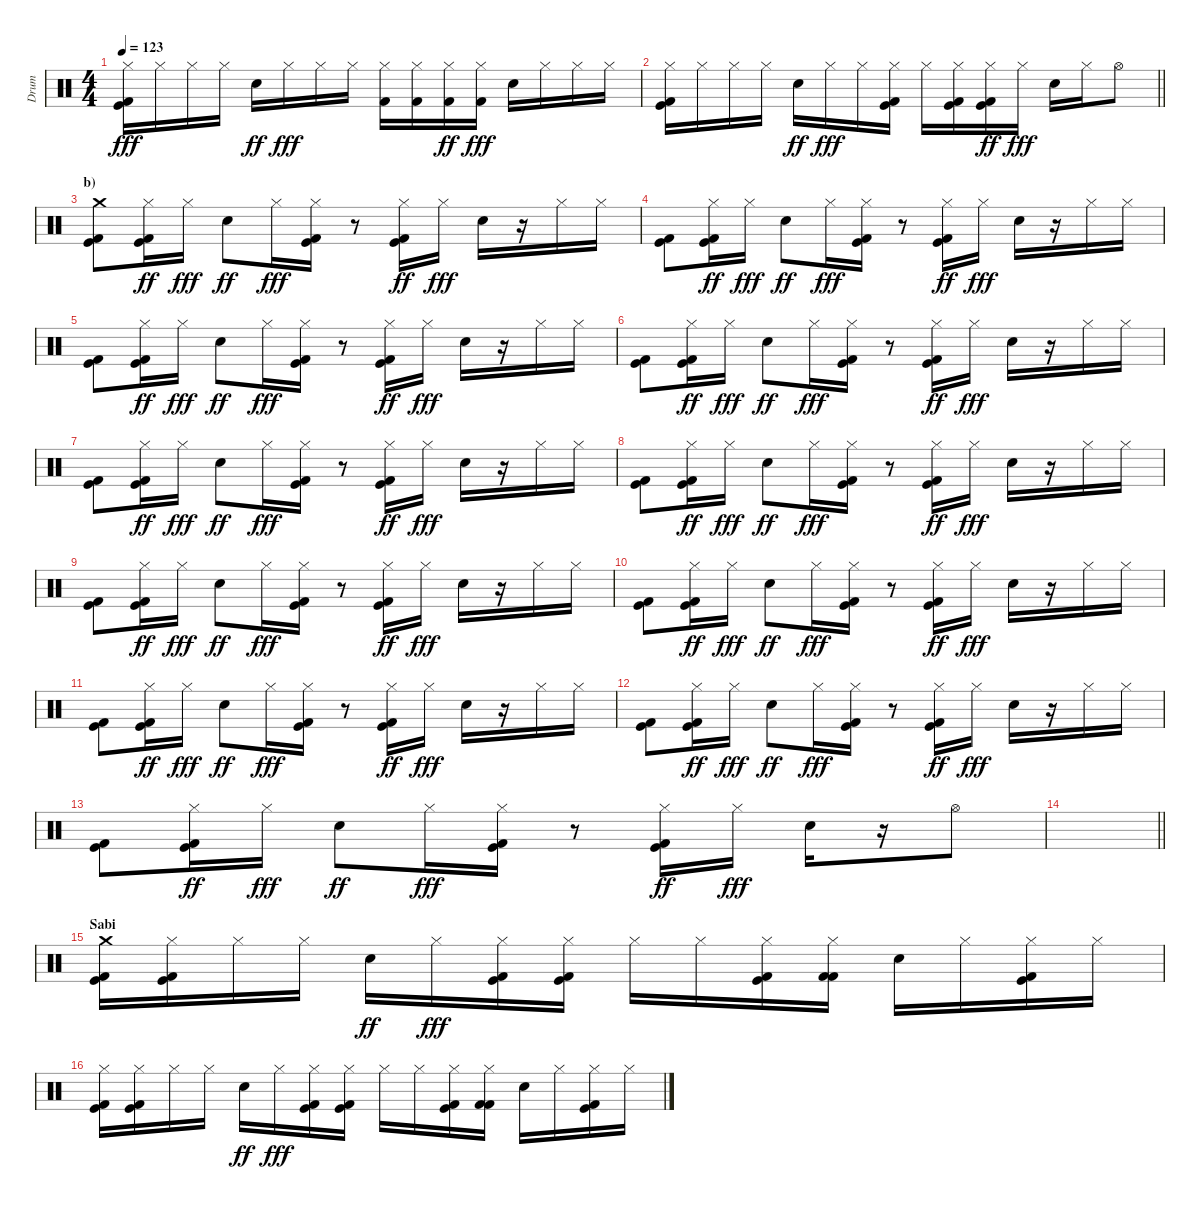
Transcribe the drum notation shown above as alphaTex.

\track ("Drum" "Drum") {instrument percussion}
\staff {score}
\articulation defaults
\ts (4 4)
\tempo 123
\clef neutral
\ks c
("Hi-Hat (closed)" "Kick (hit)" "Kick (hit) 2").16{dy fff} "Hi-Hat (closed)".16 "Hi-Hat (closed)".16 "Hi-Hat (closed)".16 "Electric Snare (hit)".16{dy ff} "Hi-Hat (closed)".16{dy fff} "Hi-Hat (closed)".16 "Hi-Hat (closed)".16 ("Hi-Hat (closed)" "Kick (hit) 2").16 ("Hi-Hat (closed)" "Kick (hit) 2").16 ("Hi-Hat (closed)" "Kick (hit) 2").16{dy ff} ("Hi-Hat (closed)" "Kick (hit) 2").16{dy fff} "Electric Snare (hit)".16 "Hi-Hat (closed)".16 "Hi-Hat (closed)".16 "Hi-Hat (closed)".16 |
\barLineRight lightlight
("Hi-Hat (closed)" "Kick (hit)" "Kick (hit) 2").16 "Hi-Hat (closed)".16 "Hi-Hat (closed)".16 "Hi-Hat (closed)".16 "Electric Snare (hit)".16{dy ff} "Hi-Hat (closed)".16{dy fff} "Hi-Hat (closed)".16 ("Hi-Hat (closed)" "Kick (hit)" "Kick (hit) 2").16 "Hi-Hat (closed)".16 ("Hi-Hat (closed)" "Kick (hit)" "Kick (hit) 2").16 ("Hi-Hat (closed)" "Kick (hit)" "Kick (hit) 2").16{dy ff} "Hi-Hat (closed)".16{dy fff} "Electric Snare (hit)".16 "Hi-Hat (closed)".16 "Hi-Hat (open)".8 |
\section ("" "b)")
("Crash medium (hit)" "Kick (hit)" "Kick (hit) 2").8 ("Hi-Hat (closed)" "Kick (hit)" "Kick (hit) 2").16{dy ff} "Hi-Hat (closed)".16{dy fff} "Electric Snare (hit)".8{dy ff} "Hi-Hat (closed)".16{dy fff} ("Hi-Hat (closed)" "Kick (hit)" "Kick (hit) 2").16 r.8 ("Hi-Hat (closed)" "Kick (hit)" "Kick (hit) 2").16{dy ff} "Hi-Hat (closed)".16{dy fff} "Electric Snare (hit)".16 r.16 "Hi-Hat (closed)".16 "Hi-Hat (closed)".16 |
("Kick (hit)" "Kick (hit) 2").8 ("Hi-Hat (closed)" "Kick (hit)" "Kick (hit) 2").16{dy ff} "Hi-Hat (closed)".16{dy fff} "Electric Snare (hit)".8{dy ff} "Hi-Hat (closed)".16{dy fff} ("Hi-Hat (closed)" "Kick (hit)" "Kick (hit) 2").16 r.8 ("Hi-Hat (closed)" "Kick (hit)" "Kick (hit) 2").16{dy ff} "Hi-Hat (closed)".16{dy fff} "Electric Snare (hit)".16 r.16 "Hi-Hat (closed)".16 "Hi-Hat (closed)".16 |
("Kick (hit)" "Kick (hit) 2").8 ("Hi-Hat (closed)" "Kick (hit)" "Kick (hit) 2").16{dy ff} "Hi-Hat (closed)".16{dy fff} "Electric Snare (hit)".8{dy ff} "Hi-Hat (closed)".16{dy fff} ("Hi-Hat (closed)" "Kick (hit)" "Kick (hit) 2").16 r.8 ("Hi-Hat (closed)" "Kick (hit)" "Kick (hit) 2").16{dy ff} "Hi-Hat (closed)".16{dy fff} "Electric Snare (hit)".16 r.16 "Hi-Hat (closed)".16 "Hi-Hat (closed)".16 |
("Kick (hit)" "Kick (hit) 2").8 ("Hi-Hat (closed)" "Kick (hit)" "Kick (hit) 2").16{dy ff} "Hi-Hat (closed)".16{dy fff} "Electric Snare (hit)".8{dy ff} "Hi-Hat (closed)".16{dy fff} ("Hi-Hat (closed)" "Kick (hit)" "Kick (hit) 2").16 r.8 ("Hi-Hat (closed)" "Kick (hit)" "Kick (hit) 2").16{dy ff} "Hi-Hat (closed)".16{dy fff} "Electric Snare (hit)".16 r.16 "Hi-Hat (closed)".16 "Hi-Hat (closed)".16 |
("Kick (hit)" "Kick (hit) 2").8 ("Hi-Hat (closed)" "Kick (hit)" "Kick (hit) 2").16{dy ff} "Hi-Hat (closed)".16{dy fff} "Electric Snare (hit)".8{dy ff} "Hi-Hat (closed)".16{dy fff} ("Hi-Hat (closed)" "Kick (hit)" "Kick (hit) 2").16 r.8 ("Hi-Hat (closed)" "Kick (hit)" "Kick (hit) 2").16{dy ff} "Hi-Hat (closed)".16{dy fff} "Electric Snare (hit)".16 r.16 "Hi-Hat (closed)".16 "Hi-Hat (closed)".16 |
("Kick (hit)" "Kick (hit) 2").8 ("Hi-Hat (closed)" "Kick (hit)" "Kick (hit) 2").16{dy ff} "Hi-Hat (closed)".16{dy fff} "Electric Snare (hit)".8{dy ff} "Hi-Hat (closed)".16{dy fff} ("Hi-Hat (closed)" "Kick (hit)" "Kick (hit) 2").16 r.8 ("Hi-Hat (closed)" "Kick (hit)" "Kick (hit) 2").16{dy ff} "Hi-Hat (closed)".16{dy fff} "Electric Snare (hit)".16 r.16 "Hi-Hat (closed)".16 "Hi-Hat (closed)".16 |
("Kick (hit)" "Kick (hit) 2").8 ("Hi-Hat (closed)" "Kick (hit)" "Kick (hit) 2").16{dy ff} "Hi-Hat (closed)".16{dy fff} "Electric Snare (hit)".8{dy ff} "Hi-Hat (closed)".16{dy fff} ("Hi-Hat (closed)" "Kick (hit)" "Kick (hit) 2").16 r.8 ("Hi-Hat (closed)" "Kick (hit)" "Kick (hit) 2").16{dy ff} "Hi-Hat (closed)".16{dy fff} "Electric Snare (hit)".16 r.16 "Hi-Hat (closed)".16 "Hi-Hat (closed)".16 |
("Kick (hit)" "Kick (hit) 2").8 ("Hi-Hat (closed)" "Kick (hit)" "Kick (hit) 2").16{dy ff} "Hi-Hat (closed)".16{dy fff} "Electric Snare (hit)".8{dy ff} "Hi-Hat (closed)".16{dy fff} ("Hi-Hat (closed)" "Kick (hit)" "Kick (hit) 2").16 r.8 ("Hi-Hat (closed)" "Kick (hit)" "Kick (hit) 2").16{dy ff} "Hi-Hat (closed)".16{dy fff} "Electric Snare (hit)".16 r.16 "Hi-Hat (closed)".16 "Hi-Hat (closed)".16 |
("Kick (hit)" "Kick (hit) 2").8 ("Hi-Hat (closed)" "Kick (hit)" "Kick (hit) 2").16{dy ff} "Hi-Hat (closed)".16{dy fff} "Electric Snare (hit)".8{dy ff} "Hi-Hat (closed)".16{dy fff} ("Hi-Hat (closed)" "Kick (hit)" "Kick (hit) 2").16 r.8 ("Hi-Hat (closed)" "Kick (hit)" "Kick (hit) 2").16{dy ff} "Hi-Hat (closed)".16{dy fff} "Electric Snare (hit)".16 r.16 "Hi-Hat (closed)".16 "Hi-Hat (closed)".16 |
("Kick (hit)" "Kick (hit) 2").8 ("Hi-Hat (closed)" "Kick (hit)" "Kick (hit) 2").16{dy ff} "Hi-Hat (closed)".16{dy fff} "Electric Snare (hit)".8{dy ff} "Hi-Hat (closed)".16{dy fff} ("Hi-Hat (closed)" "Kick (hit)" "Kick (hit) 2").16 r.8 ("Hi-Hat (closed)" "Kick (hit)" "Kick (hit) 2").16{dy ff} "Hi-Hat (closed)".16{dy fff} "Electric Snare (hit)".16 r.16 "Hi-Hat (closed)".16 "Hi-Hat (closed)".16 |
("Kick (hit)" "Kick (hit) 2").8 ("Hi-Hat (closed)" "Kick (hit)" "Kick (hit) 2").16{dy ff} "Hi-Hat (closed)".16{dy fff} "Electric Snare (hit)".8{dy ff} "Hi-Hat (closed)".16{dy fff} ("Hi-Hat (closed)" "Kick (hit)" "Kick (hit) 2").16 r.8 ("Hi-Hat (closed)" "Kick (hit)" "Kick (hit) 2").16{dy ff} "Hi-Hat (closed)".16{dy fff} "Electric Snare (hit)".16 r.16 "Hi-Hat (open)".8 |
\barLineRight lightlight
|
\section ("" "Sabi")
("Crash medium (hit)" "Kick (hit)" "Kick (hit) 2").16 ("Hi-Hat (closed)" "Kick (hit)" "Kick (hit) 2").16 "Hi-Hat (closed)".16 "Hi-Hat (closed)".16 "Electric Snare (hit)".16{dy ff} "Hi-Hat (closed)".16{dy fff} ("Hi-Hat (closed)" "Kick (hit)" "Kick (hit) 2").16 ("Hi-Hat (closed)" "Kick (hit)" "Kick (hit) 2").16 "Hi-Hat (closed)".16 "Hi-Hat (closed)".16 ("Hi-Hat (closed)" "Kick (hit)" "Kick (hit) 2").16 ("Hi-Hat (closed)" "Kick (hit) 2" "Kick (hit) 2").16 "Electric Snare (hit)".16 "Hi-Hat (closed)".16 ("Hi-Hat (closed)" "Kick (hit)" "Kick (hit) 2").16 "Hi-Hat (closed)".16 |
("Hi-Hat (closed)" "Kick (hit)" "Kick (hit) 2").16 ("Hi-Hat (closed)" "Kick (hit)" "Kick (hit) 2").16 "Hi-Hat (closed)".16 "Hi-Hat (closed)".16 "Electric Snare (hit)".16{dy ff} "Hi-Hat (closed)".16{dy fff} ("Hi-Hat (closed)" "Kick (hit)" "Kick (hit) 2").16 ("Hi-Hat (closed)" "Kick (hit)" "Kick (hit) 2").16 "Hi-Hat (closed)".16 "Hi-Hat (closed)".16 ("Hi-Hat (closed)" "Kick (hit)" "Kick (hit) 2").16 ("Hi-Hat (closed)" "Kick (hit) 2" "Kick (hit) 2").16 "Electric Snare (hit)".16 "Hi-Hat (closed)".16 ("Hi-Hat (closed)" "Kick (hit)" "Kick (hit) 2").16 "Hi-Hat (closed)".16
